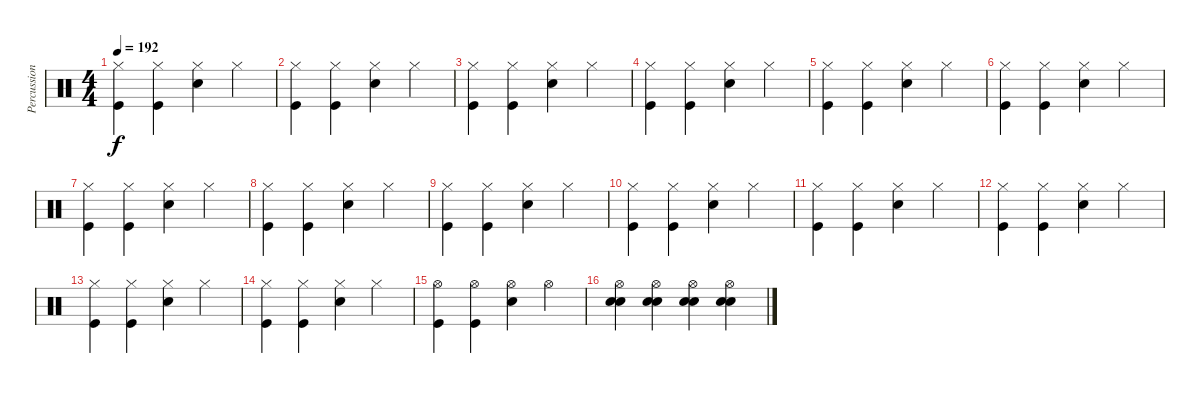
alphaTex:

\track ("Percussion" "Percussion") {instrument percussion}
\staff {score}
\articulation defaults
\ts (4 4)
\tempo 192
\clef neutral
\ks c
("Hi-Hat (closed)" "Kick (hit)").4{dy f} ("Hi-Hat (closed)" "Kick (hit)").4 ("Hi-Hat (closed)" "Electric Snare (hit)").4 "Hi-Hat (closed)".4 |
("Hi-Hat (closed)" "Kick (hit)").4 ("Hi-Hat (closed)" "Kick (hit)").4 ("Hi-Hat (closed)" "Electric Snare (hit)").4 "Hi-Hat (closed)".4 |
("Hi-Hat (closed)" "Kick (hit)").4 ("Hi-Hat (closed)" "Kick (hit)").4 ("Hi-Hat (closed)" "Electric Snare (hit)").4 "Hi-Hat (closed)".4 |
("Hi-Hat (closed)" "Kick (hit)").4 ("Hi-Hat (closed)" "Kick (hit)").4 ("Hi-Hat (closed)" "Electric Snare (hit)").4 "Hi-Hat (closed)".4 |
("Hi-Hat (closed)" "Kick (hit)").4 ("Hi-Hat (closed)" "Kick (hit)").4 ("Hi-Hat (closed)" "Electric Snare (hit)").4 "Hi-Hat (closed)".4 |
("Hi-Hat (closed)" "Kick (hit)").4 ("Hi-Hat (closed)" "Kick (hit)").4 ("Hi-Hat (closed)" "Electric Snare (hit)").4 "Hi-Hat (closed)".4 |
("Hi-Hat (closed)" "Kick (hit)").4 ("Hi-Hat (closed)" "Kick (hit)").4 ("Hi-Hat (closed)" "Electric Snare (hit)").4 "Hi-Hat (closed)".4 |
("Hi-Hat (closed)" "Kick (hit)").4 ("Hi-Hat (closed)" "Kick (hit)").4 ("Hi-Hat (closed)" "Electric Snare (hit)").4 "Hi-Hat (closed)".4 |
("Hi-Hat (closed)" "Kick (hit)").4 ("Hi-Hat (closed)" "Kick (hit)").4 ("Hi-Hat (closed)" "Electric Snare (hit)").4 "Hi-Hat (closed)".4 |
("Hi-Hat (closed)" "Kick (hit)").4 ("Hi-Hat (closed)" "Kick (hit)").4 ("Hi-Hat (closed)" "Electric Snare (hit)").4 "Hi-Hat (closed)".4 |
("Hi-Hat (closed)" "Kick (hit)").4 ("Hi-Hat (closed)" "Kick (hit)").4 ("Hi-Hat (closed)" "Electric Snare (hit)").4 "Hi-Hat (closed)".4 |
("Hi-Hat (closed)" "Kick (hit)").4 ("Hi-Hat (closed)" "Kick (hit)").4 ("Hi-Hat (closed)" "Electric Snare (hit)").4 "Hi-Hat (closed)".4 |
("Hi-Hat (closed)" "Kick (hit)").4 ("Hi-Hat (closed)" "Kick (hit)").4 ("Hi-Hat (closed)" "Electric Snare (hit)").4 "Hi-Hat (closed)".4 |
("Hi-Hat (closed)" "Kick (hit)").4 ("Hi-Hat (closed)" "Kick (hit)").4 ("Hi-Hat (closed)" "Electric Snare (hit)").4 "Hi-Hat (closed)".4 |
("Hi-Hat (open)" "Kick (hit)").4 ("Hi-Hat (open)" "Kick (hit)").4 ("Hi-Hat (open)" "Electric Snare (hit)").4 "Hi-Hat (open)".4 |
("Hi-Hat (open)" "Electric Snare (hit)" "Electric Snare (hit)").4 ("Hi-Hat (open)" "Electric Snare (hit)" "Electric Snare (hit)").4 ("Hi-Hat (open)" "Electric Snare (hit)" "Electric Snare (hit)").4 ("Hi-Hat (open)" "Electric Snare (hit)" "Electric Snare (hit)").4
